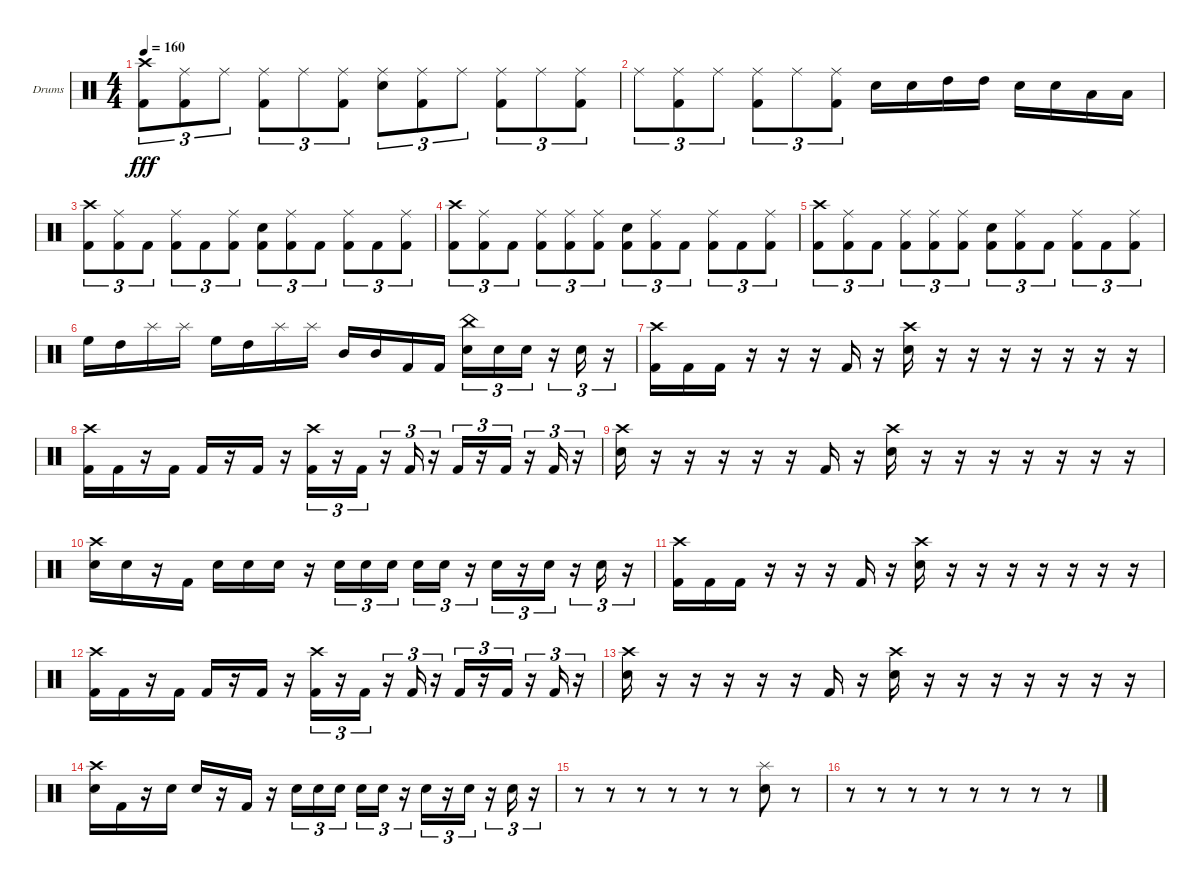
\bracketExtendMode groupsimilarinstruments
\firstSystemTrackNameOrientation horizontal
\otherSystemsTrackNameOrientation horizontal
\track ("Gigante" "Drums") {instrument percussion}
\staff {score}
\articulation defaults
\ts (4 4)
\tempo 160
\clef neutral
\ks c
("Crash high (hit)" "Kick (hit) 2").8{tu (3 2) dy fff} ("Ride (middle)" "Kick (hit) 2").8{tu (3 2)} "Ride (middle)".8{tu (3 2)} ("Ride (middle)" "Kick (hit) 2").8{tu (3 2)} "Ride (middle)".8{tu (3 2)} ("Ride (middle)" "Kick (hit) 2").8{tu (3 2)} ("Ride (middle)" "Snare (hit) 2").8{tu (3 2)} ("Ride (middle)" "Kick (hit) 2").8{tu (3 2)} "Ride (middle)".8{tu (3 2)} ("Ride (middle)" "Kick (hit) 2").8{tu (3 2)} "Ride (middle)".8{tu (3 2)} ("Ride (middle)" "Kick (hit) 2").8{tu (3 2)} |
"Ride (middle)".8{tu (3 2)} ("Ride (middle)" "Kick (hit) 2").8{tu (3 2)} "Ride (middle)".8{tu (3 2)} ("Ride (middle)" "Kick (hit) 2").8{tu (3 2)} "Ride (middle)".8{tu (3 2)} ("Ride (middle)" "Kick (hit) 2").8{tu (3 2)} "Snare (hit) 2".16 "Snare (hit) 2".16 "High Tom (hit)".16 "High Tom (hit)".16 "Snare (hit) 2".16 "Snare (hit) 2".16 "Low Tom (hit)".16 "Low Tom (hit)".16 |
("Crash high (hit)" "Kick (hit) 2").8{tu (3 2)} ("Ride (middle)" "Kick (hit) 2").8{tu (3 2)} "Kick (hit) 2".8{tu (3 2)} ("Ride (middle)" "Kick (hit) 2").8{tu (3 2)} "Kick (hit) 2".8{tu (3 2)} ("Ride (middle)" "Kick (hit) 2").8{tu (3 2)} ("Snare (hit) 2" "Kick (hit) 2").8{tu (3 2)} ("Ride (middle)" "Kick (hit) 2").8{tu (3 2)} "Kick (hit) 2".8{tu (3 2)} ("Ride (middle)" "Kick (hit) 2").8{tu (3 2)} "Kick (hit) 2".8{tu (3 2)} ("Ride (middle)" "Kick (hit) 2").8{tu (3 2)} |
("Crash high (hit)" "Kick (hit) 2").8{tu (3 2)} ("Ride (middle)" "Kick (hit) 2").8{tu (3 2)} "Kick (hit) 2".8{tu (3 2)} ("Ride (middle)" "Kick (hit) 2").8{tu (3 2)} ("Ride (middle)" "Kick (hit) 2").8{tu (3 2)} ("Ride (middle)" "Kick (hit) 2").8{tu (3 2)} ("Snare (hit) 2" "Kick (hit) 2").8{tu (3 2)} ("Ride (middle)" "Kick (hit) 2").8{tu (3 2)} "Kick (hit) 2".8{tu (3 2)} ("Ride (middle)" "Kick (hit) 2").8{tu (3 2)} "Kick (hit) 2".8{tu (3 2)} ("Ride (middle)" "Kick (hit) 2").8{tu (3 2)} |
("Crash high (hit)" "Kick (hit) 2").8{tu (3 2)} ("Ride (middle)" "Kick (hit) 2").8{tu (3 2)} "Kick (hit) 2".8{tu (3 2)} ("Ride (middle)" "Kick (hit) 2").8{tu (3 2)} ("Ride (middle)" "Kick (hit) 2").8{tu (3 2)} ("Ride (middle)" "Kick (hit) 2").8{tu (3 2)} ("Snare (hit) 2" "Kick (hit) 2").8{tu (3 2)} ("Ride (middle)" "Kick (hit) 2").8{tu (3 2)} "Kick (hit) 2".8{tu (3 2)} ("Ride (middle)" "Kick (hit) 2").8{tu (3 2)} "Kick (hit) 2".8{tu (3 2)} ("Ride (middle)" "Kick (hit) 2").8{tu (3 2)} |
"High Floor Tom (hit)".16 "High Tom (hit)".16 "Splash (hit)".16 "Splash (hit)".16 "High Floor Tom (hit)".16 "High Tom (hit)".16 "Splash (hit)".16 "Splash (hit)".16 "Mid Tom (hit)".16 "Mid Tom (hit)".16 "Kick (hit) 2".16 "Kick (hit) 2".16 ("China (hit)" "Snare (hit) 2").16{tu (3 2)} "Snare (hit) 2".16{tu (3 2)} "Snare (hit) 2".16{tu (3 2)} r.16{tu (3 2)} "Snare (hit) 2".16{tu (3 2)} r.16{tu (3 2)} |
("Crash high (hit)" "Kick (hit) 2").16 "Kick (hit) 2".16 "Kick (hit) 2".16 r.16 r.16 r.16 "Kick (hit) 2".16 r.16 ("Crash high (hit)" "Snare (hit) 2").16 r.16 r.16 r.16 r.16 r.16 r.16 r.16 |
("Crash high (hit)" "Kick (hit) 2").16 "Kick (hit) 2".16 r.16 "Kick (hit) 2".16 "Kick (hit) 2".16 r.16 "Kick (hit) 2".16 r.16 ("Crash high (hit)" "Kick (hit) 2").16{tu (3 2)} r.16{tu (3 2)} "Kick (hit) 2".16{tu (3 2)} r.16{tu (3 2)} "Kick (hit) 2".16{tu (3 2)} r.16{tu (3 2)} "Kick (hit) 2".16{tu (3 2)} r.16{tu (3 2)} "Kick (hit) 2".16{tu (3 2)} r.16{tu (3 2)} "Kick (hit) 2".16{tu (3 2)} r.16{tu (3 2)} |
("Crash high (hit)" "Snare (hit) 2").16 r.16 r.16 r.16 r.16 r.16 "Kick (hit) 2".16 r.16 ("Crash high (hit)" "Snare (hit) 2").16 r.16 r.16 r.16 r.16 r.16 r.16 r.16 |
("Crash high (hit)" "Snare (hit) 2").16 "Snare (hit) 2".16 r.16 "Kick (hit) 2".16 "Snare (hit) 2".16 "Snare (hit) 2".16 "Snare (hit) 2".16 r.16 "Snare (hit) 2".16{tu (3 2)} "Snare (hit) 2".16{tu (3 2)} "Snare (hit) 2".16{tu (3 2)} "Snare (hit) 2".16{tu (3 2)} "Snare (hit) 2".16{tu (3 2)} r.16{tu (3 2)} "Snare (hit) 2".16{tu (3 2)} r.16{tu (3 2)} "Snare (hit) 2".16{tu (3 2)} r.16{tu (3 2)} "Snare (hit) 2".16{tu (3 2)} r.16{tu (3 2)} |
("Crash high (hit)" "Kick (hit) 2").16 "Kick (hit) 2".16 "Kick (hit) 2".16 r.16 r.16 r.16 "Kick (hit) 2".16 r.16 ("Crash high (hit)" "Snare (hit) 2").16 r.16 r.16 r.16 r.16 r.16 r.16 r.16 |
("Crash high (hit)" "Kick (hit) 2").16 "Kick (hit) 2".16 r.16 "Kick (hit) 2".16 "Kick (hit) 2".16 r.16 "Kick (hit) 2".16 r.16 ("Crash high (hit)" "Kick (hit) 2").16{tu (3 2)} r.16{tu (3 2)} "Kick (hit) 2".16{tu (3 2)} r.16{tu (3 2)} "Kick (hit) 2".16{tu (3 2)} r.16{tu (3 2)} "Kick (hit) 2".16{tu (3 2)} r.16{tu (3 2)} "Kick (hit) 2".16{tu (3 2)} r.16{tu (3 2)} "Kick (hit) 2".16{tu (3 2)} r.16{tu (3 2)} |
("Crash high (hit)" "Snare (hit) 2").16 r.16 r.16 r.16 r.16 r.16 "Kick (hit) 2".16 r.16 ("Crash high (hit)" "Snare (hit) 2").16 r.16 r.16 r.16 r.16 r.16 r.16 r.16 |
("Crash high (hit)" "Snare (hit) 2").16 "Kick (hit) 2".16 r.16 "Snare (hit) 2".16 "Snare (hit) 2".16 r.16 "Kick (hit) 2".16 r.16 "Snare (hit) 2".16{tu (3 2)} "Snare (hit) 2".16{tu (3 2)} "Snare (hit) 2".16{tu (3 2)} "Snare (hit) 2".16{tu (3 2)} "Snare (hit) 2".16{tu (3 2)} r.16{tu (3 2)} "Snare (hit) 2".16{tu (3 2)} r.16{tu (3 2)} "Snare (hit) 2".16{tu (3 2)} r.16{tu (3 2)} "Snare (hit) 2".16{tu (3 2)} r.16{tu (3 2)} |
r.8 r.8 r.8 r.8 r.8 r.8 ("Splash (hit)" "Snare (hit) 2").8 r.8 |
r.8 r.8 r.8 r.8 r.8 r.8 r.8 r.8
